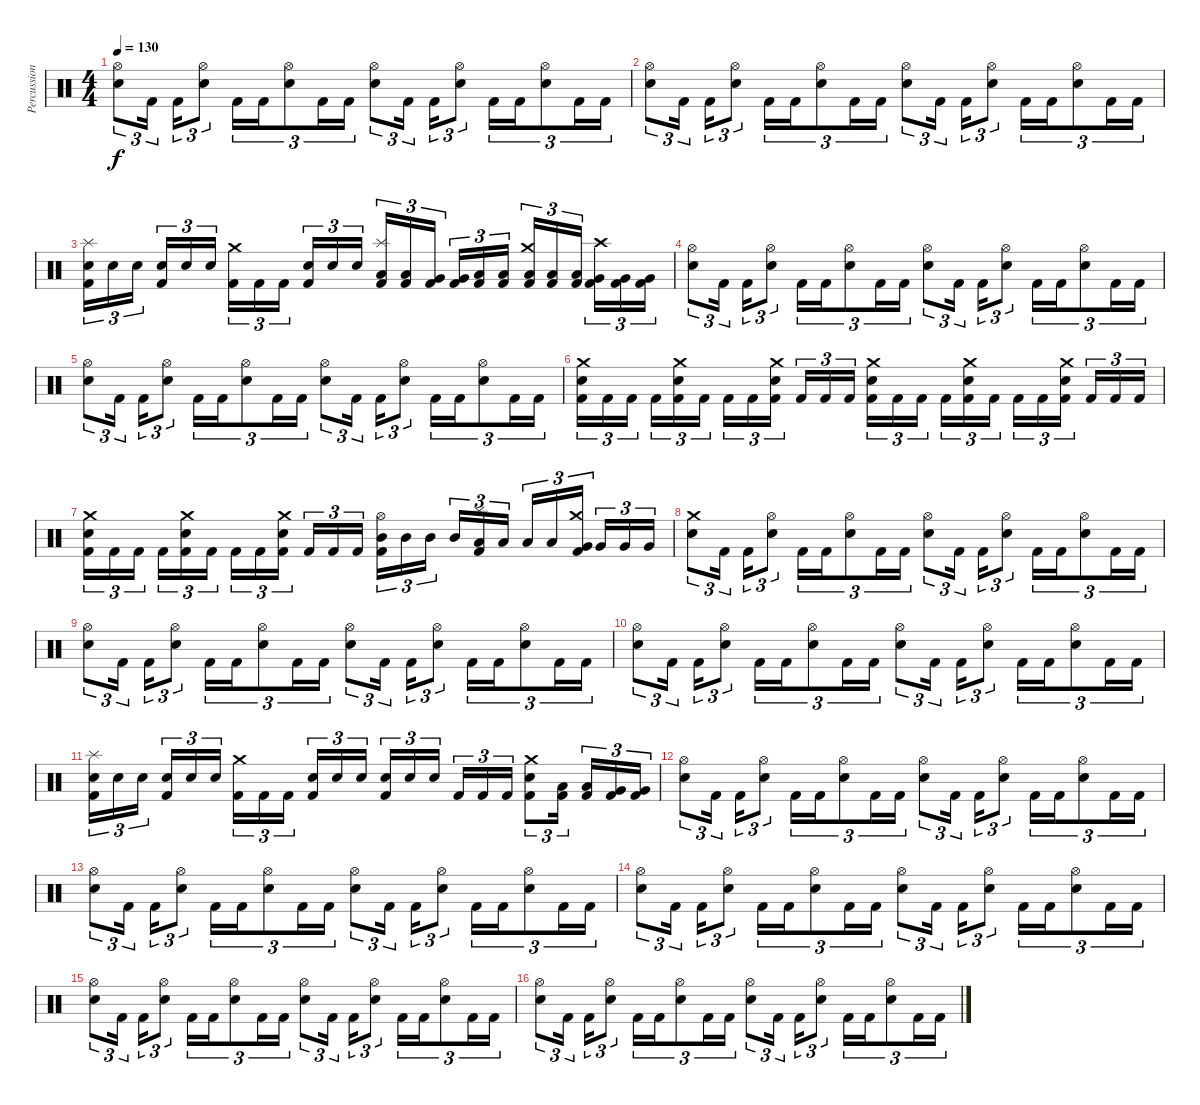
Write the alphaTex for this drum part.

\track ("Percussion" "Percussion") {instrument percussion}
\staff {score}
\articulation defaults
\ts (4 4)
\tempo 130
\clef neutral
\ks c
("Hi-Hat (open)" "Snare (hit) 2").8{tu (3 2) dy f} "Kick (hit) 2".16{tu (3 2)} "Kick (hit) 2".16{tu (3 2)} ("Hi-Hat (open)" "Snare (hit) 2").8{tu (3 2)} "Kick (hit) 2".16{tu (3 2)} "Kick (hit) 2".16{tu (3 2)} ("Hi-Hat (open)" "Snare (hit) 2").8{tu (3 2)} "Kick (hit) 2".16{tu (3 2)} "Kick (hit) 2".16{tu (3 2)} ("Hi-Hat (open)" "Snare (hit) 2").8{tu (3 2)} "Kick (hit) 2".16{tu (3 2)} "Kick (hit) 2".16{tu (3 2)} ("Hi-Hat (open)" "Snare (hit) 2").8{tu (3 2)} "Kick (hit) 2".16{tu (3 2)} "Kick (hit) 2".16{tu (3 2)} ("Hi-Hat (open)" "Snare (hit) 2").8{tu (3 2)} "Kick (hit) 2".16{tu (3 2)} "Kick (hit) 2".16{tu (3 2)} |
("Hi-Hat (open)" "Snare (hit) 2").8{tu (3 2)} "Kick (hit) 2".16{tu (3 2)} "Kick (hit) 2".16{tu (3 2)} ("Hi-Hat (open)" "Snare (hit) 2").8{tu (3 2)} "Kick (hit) 2".16{tu (3 2)} "Kick (hit) 2".16{tu (3 2)} ("Hi-Hat (open)" "Snare (hit) 2").8{tu (3 2)} "Kick (hit) 2".16{tu (3 2)} "Kick (hit) 2".16{tu (3 2)} ("Hi-Hat (open)" "Snare (hit) 2").8{tu (3 2)} "Kick (hit) 2".16{tu (3 2)} "Kick (hit) 2".16{tu (3 2)} ("Hi-Hat (open)" "Snare (hit) 2").8{tu (3 2)} "Kick (hit) 2".16{tu (3 2)} "Kick (hit) 2".16{tu (3 2)} ("Hi-Hat (open)" "Snare (hit) 2").8{tu (3 2)} "Kick (hit) 2".16{tu (3 2)} "Kick (hit) 2".16{tu (3 2)} |
("Splash (hit)" "Snare (hit) 2" "Kick (hit) 2").16{tu (3 2)} "Snare (hit) 2".16{tu (3 2)} "Snare (hit) 2".16{tu (3 2)} ("Snare (hit) 2" "Kick (hit) 2").16{tu (3 2)} "Snare (hit) 2".16{tu (3 2)} "Snare (hit) 2".16{tu (3 2)} ("Crash medium (hit)" "Kick (hit) 2").16{tu (3 2)} "Kick (hit) 2".16{tu (3 2)} "Kick (hit) 2".16{tu (3 2)} ("Snare (hit) 2" "Kick (hit) 2").16{tu (3 2)} "Snare (hit) 2".16{tu (3 2)} "Snare (hit) 2".16{tu (3 2)} ("Splash (hit)" "Low Tom (hit)" "Kick (hit) 2").16{tu (3 2)} ("Low Tom (hit)" "Kick (hit) 2").16{tu (3 2)} ("Very Low Tom (hit)" "Kick (hit) 2").16{tu (3 2)} ("Very Low Tom (hit)" "Kick (hit) 2").16{tu (3 2)} ("Low Floor Tom (hit)" "Kick (hit) 2").16{tu (3 2)} ("Low Floor Tom (hit)" "Kick (hit) 2").16{tu (3 2)} ("Crash medium (hit)" "Low Tom (hit)" "Kick (hit) 2").16{tu (3 2)} ("Low Tom (hit)" "Kick (hit) 2").16{tu (3 2)} ("Low Tom (hit)" "Kick (hit) 2").16{tu (3 2)} ("Crash high (hit)" "Very Low Tom (hit)" "Kick (hit) 2").16{tu (3 2)} ("Very Low Tom (hit)" "Kick (hit) 2").16{tu (3 2)} ("Very Low Tom (hit)" "Kick (hit) 2").16{tu (3 2)} |
("Hi-Hat (open)" "Snare (hit) 2").8{tu (3 2)} "Kick (hit) 2".16{tu (3 2)} "Kick (hit) 2".16{tu (3 2)} ("Hi-Hat (open)" "Snare (hit) 2").8{tu (3 2)} "Kick (hit) 2".16{tu (3 2)} "Kick (hit) 2".16{tu (3 2)} ("Hi-Hat (open)" "Snare (hit) 2").8{tu (3 2)} "Kick (hit) 2".16{tu (3 2)} "Kick (hit) 2".16{tu (3 2)} ("Hi-Hat (open)" "Snare (hit) 2").8{tu (3 2)} "Kick (hit) 2".16{tu (3 2)} "Kick (hit) 2".16{tu (3 2)} ("Hi-Hat (open)" "Snare (hit) 2").8{tu (3 2)} "Kick (hit) 2".16{tu (3 2)} "Kick (hit) 2".16{tu (3 2)} ("Hi-Hat (open)" "Snare (hit) 2").8{tu (3 2)} "Kick (hit) 2".16{tu (3 2)} "Kick (hit) 2".16{tu (3 2)} |
("Hi-Hat (open)" "Snare (hit) 2").8{tu (3 2)} "Kick (hit) 2".16{tu (3 2)} "Kick (hit) 2".16{tu (3 2)} ("Hi-Hat (open)" "Snare (hit) 2").8{tu (3 2)} "Kick (hit) 2".16{tu (3 2)} "Kick (hit) 2".16{tu (3 2)} ("Hi-Hat (open)" "Snare (hit) 2").8{tu (3 2)} "Kick (hit) 2".16{tu (3 2)} "Kick (hit) 2".16{tu (3 2)} ("Hi-Hat (open)" "Snare (hit) 2").8{tu (3 2)} "Kick (hit) 2".16{tu (3 2)} "Kick (hit) 2".16{tu (3 2)} ("Hi-Hat (open)" "Snare (hit) 2").8{tu (3 2)} "Kick (hit) 2".16{tu (3 2)} "Kick (hit) 2".16{tu (3 2)} ("Hi-Hat (open)" "Snare (hit) 2").8{tu (3 2)} "Kick (hit) 2".16{tu (3 2)} "Kick (hit) 2".16{tu (3 2)} |
("Crash medium (hit)" "Snare (hit) 2" "Kick (hit) 2").16{tu (3 2)} "Kick (hit) 2".16{tu (3 2)} "Kick (hit) 2".16{tu (3 2)} "Kick (hit) 2".16{tu (3 2)} ("Crash medium (hit)" "Snare (hit) 2" "Kick (hit) 2").16{tu (3 2)} "Kick (hit) 2".16{tu (3 2)} "Kick (hit) 2".16{tu (3 2)} "Kick (hit) 2".16{tu (3 2)} ("Crash medium (hit)" "Snare (hit) 2" "Kick (hit) 2").16{tu (3 2)} "Kick (hit) 2".16{tu (3 2)} "Kick (hit) 2".16{tu (3 2)} "Kick (hit) 2".16{tu (3 2)} ("Crash medium (hit)" "Snare (hit) 2" "Kick (hit) 2").16{tu (3 2)} "Kick (hit) 2".16{tu (3 2)} "Kick (hit) 2".16{tu (3 2)} "Kick (hit) 2".16{tu (3 2)} ("Crash medium (hit)" "Snare (hit) 2" "Kick (hit) 2").16{tu (3 2)} "Kick (hit) 2".16{tu (3 2)} "Kick (hit) 2".16{tu (3 2)} "Kick (hit) 2".16{tu (3 2)} ("Crash medium (hit)" "Snare (hit) 2" "Kick (hit) 2").16{tu (3 2)} "Kick (hit) 2".16{tu (3 2)} "Kick (hit) 2".16{tu (3 2)} "Kick (hit) 2".16{tu (3 2)} |
("Crash medium (hit)" "Snare (hit) 2" "Kick (hit) 2").16{tu (3 2)} "Kick (hit) 2".16{tu (3 2)} "Kick (hit) 2".16{tu (3 2)} "Kick (hit) 2".16{tu (3 2)} ("Crash medium (hit)" "Snare (hit) 2" "Kick (hit) 2").16{tu (3 2)} "Kick (hit) 2".16{tu (3 2)} "Kick (hit) 2".16{tu (3 2)} "Kick (hit) 2".16{tu (3 2)} ("Crash medium (hit)" "Snare (hit) 2" "Kick (hit) 2").16{tu (3 2)} "Kick (hit) 2".16{tu (3 2)} "Kick (hit) 2".16{tu (3 2)} "Kick (hit) 2".16{tu (3 2)} ("Hi-Hat (open)" "Mid Tom (hit)" "Kick (hit) 2").16{tu (3 2)} "Mid Tom (hit)".16{tu (3 2)} "Mid Tom (hit)".16{tu (3 2)} "Mid Tom (hit)".16{tu (3 2)} ("Splash (hit)" "Low Tom (hit)" "Kick (hit) 2").16{tu (3 2)} "Low Tom (hit)".16{tu (3 2)} "Low Tom (hit)".16{tu (3 2)} "Low Tom (hit)".16{tu (3 2)} ("Crash medium (hit)" "Very Low Tom (hit)" "Kick (hit) 2").16{tu (3 2)} "Very Low Tom (hit)".16{tu (3 2)} "Very Low Tom (hit)".16{tu (3 2)} "Very Low Tom (hit)".16{tu (3 2)} |
("Crash medium (hit)" "Snare (hit) 2").8{tu (3 2)} "Kick (hit) 2".16{tu (3 2)} "Kick (hit) 2".16{tu (3 2)} ("Hi-Hat (open)" "Snare (hit) 2").8{tu (3 2)} "Kick (hit) 2".16{tu (3 2)} "Kick (hit) 2".16{tu (3 2)} ("Hi-Hat (open)" "Snare (hit) 2").8{tu (3 2)} "Kick (hit) 2".16{tu (3 2)} "Kick (hit) 2".16{tu (3 2)} ("Hi-Hat (open)" "Snare (hit) 2").8{tu (3 2)} "Kick (hit) 2".16{tu (3 2)} "Kick (hit) 2".16{tu (3 2)} ("Hi-Hat (open)" "Snare (hit) 2").8{tu (3 2)} "Kick (hit) 2".16{tu (3 2)} "Kick (hit) 2".16{tu (3 2)} ("Hi-Hat (open)" "Snare (hit) 2").8{tu (3 2)} "Kick (hit) 2".16{tu (3 2)} "Kick (hit) 2".16{tu (3 2)} |
("Hi-Hat (open)" "Snare (hit) 2").8{tu (3 2)} "Kick (hit) 2".16{tu (3 2)} "Kick (hit) 2".16{tu (3 2)} ("Hi-Hat (open)" "Snare (hit) 2").8{tu (3 2)} "Kick (hit) 2".16{tu (3 2)} "Kick (hit) 2".16{tu (3 2)} ("Hi-Hat (open)" "Snare (hit) 2").8{tu (3 2)} "Kick (hit) 2".16{tu (3 2)} "Kick (hit) 2".16{tu (3 2)} ("Hi-Hat (open)" "Snare (hit) 2").8{tu (3 2)} "Kick (hit) 2".16{tu (3 2)} "Kick (hit) 2".16{tu (3 2)} ("Hi-Hat (open)" "Snare (hit) 2").8{tu (3 2)} "Kick (hit) 2".16{tu (3 2)} "Kick (hit) 2".16{tu (3 2)} ("Hi-Hat (open)" "Snare (hit) 2").8{tu (3 2)} "Kick (hit) 2".16{tu (3 2)} "Kick (hit) 2".16{tu (3 2)} |
("Hi-Hat (open)" "Snare (hit) 2").8{tu (3 2)} "Kick (hit) 2".16{tu (3 2)} "Kick (hit) 2".16{tu (3 2)} ("Hi-Hat (open)" "Snare (hit) 2").8{tu (3 2)} "Kick (hit) 2".16{tu (3 2)} "Kick (hit) 2".16{tu (3 2)} ("Hi-Hat (open)" "Snare (hit) 2").8{tu (3 2)} "Kick (hit) 2".16{tu (3 2)} "Kick (hit) 2".16{tu (3 2)} ("Hi-Hat (open)" "Snare (hit) 2").8{tu (3 2)} "Kick (hit) 2".16{tu (3 2)} "Kick (hit) 2".16{tu (3 2)} ("Hi-Hat (open)" "Snare (hit) 2").8{tu (3 2)} "Kick (hit) 2".16{tu (3 2)} "Kick (hit) 2".16{tu (3 2)} ("Hi-Hat (open)" "Snare (hit) 2").8{tu (3 2)} "Kick (hit) 2".16{tu (3 2)} "Kick (hit) 2".16{tu (3 2)} |
("Splash (hit)" "Snare (hit) 2" "Kick (hit) 2").16{tu (3 2)} "Snare (hit) 2".16{tu (3 2)} "Snare (hit) 2".16{tu (3 2)} ("Snare (hit) 2" "Kick (hit) 2").16{tu (3 2)} "Snare (hit) 2".16{tu (3 2)} "Snare (hit) 2".16{tu (3 2)} ("Crash medium (hit)" "Kick (hit) 2").16{tu (3 2)} "Kick (hit) 2".16{tu (3 2)} "Kick (hit) 2".16{tu (3 2)} ("Snare (hit) 2" "Kick (hit) 2").16{tu (3 2)} "Snare (hit) 2".16{tu (3 2)} "Snare (hit) 2".16{tu (3 2)} ("Snare (hit) 2" "Kick (hit) 2").16{tu (3 2)} "Snare (hit) 2".16{tu (3 2)} "Snare (hit) 2".16{tu (3 2)} "Kick (hit) 2".16{tu (3 2)} "Kick (hit) 2".16{tu (3 2)} "Kick (hit) 2".16{tu (3 2)} ("Crash medium (hit)" "Snare (hit) 2" "Kick (hit) 2").8{tu (3 2)} ("Low Tom (hit)" "Kick (hit) 2").16{tu (3 2)} ("Low Tom (hit)" "Kick (hit) 2").16{tu (3 2)} ("Very Low Tom (hit)" "Kick (hit) 2").16{tu (3 2)} ("Very Low Tom (hit)" "Kick (hit) 2").16{tu (3 2)} |
("Hi-Hat (open)" "Snare (hit) 2").8{tu (3 2)} "Kick (hit) 2".16{tu (3 2)} "Kick (hit) 2".16{tu (3 2)} ("Hi-Hat (open)" "Snare (hit) 2").8{tu (3 2)} "Kick (hit) 2".16{tu (3 2)} "Kick (hit) 2".16{tu (3 2)} ("Hi-Hat (open)" "Snare (hit) 2").8{tu (3 2)} "Kick (hit) 2".16{tu (3 2)} "Kick (hit) 2".16{tu (3 2)} ("Hi-Hat (open)" "Snare (hit) 2").8{tu (3 2)} "Kick (hit) 2".16{tu (3 2)} "Kick (hit) 2".16{tu (3 2)} ("Hi-Hat (open)" "Snare (hit) 2").8{tu (3 2)} "Kick (hit) 2".16{tu (3 2)} "Kick (hit) 2".16{tu (3 2)} ("Hi-Hat (open)" "Snare (hit) 2").8{tu (3 2)} "Kick (hit) 2".16{tu (3 2)} "Kick (hit) 2".16{tu (3 2)} |
("Hi-Hat (open)" "Snare (hit) 2").8{tu (3 2)} "Kick (hit) 2".16{tu (3 2)} "Kick (hit) 2".16{tu (3 2)} ("Hi-Hat (open)" "Snare (hit) 2").8{tu (3 2)} "Kick (hit) 2".16{tu (3 2)} "Kick (hit) 2".16{tu (3 2)} ("Hi-Hat (open)" "Snare (hit) 2").8{tu (3 2)} "Kick (hit) 2".16{tu (3 2)} "Kick (hit) 2".16{tu (3 2)} ("Hi-Hat (open)" "Snare (hit) 2").8{tu (3 2)} "Kick (hit) 2".16{tu (3 2)} "Kick (hit) 2".16{tu (3 2)} ("Hi-Hat (open)" "Snare (hit) 2").8{tu (3 2)} "Kick (hit) 2".16{tu (3 2)} "Kick (hit) 2".16{tu (3 2)} ("Hi-Hat (open)" "Snare (hit) 2").8{tu (3 2)} "Kick (hit) 2".16{tu (3 2)} "Kick (hit) 2".16{tu (3 2)} |
("Hi-Hat (open)" "Snare (hit) 2").8{tu (3 2)} "Kick (hit) 2".16{tu (3 2)} "Kick (hit) 2".16{tu (3 2)} ("Hi-Hat (open)" "Snare (hit) 2").8{tu (3 2)} "Kick (hit) 2".16{tu (3 2)} "Kick (hit) 2".16{tu (3 2)} ("Hi-Hat (open)" "Snare (hit) 2").8{tu (3 2)} "Kick (hit) 2".16{tu (3 2)} "Kick (hit) 2".16{tu (3 2)} ("Hi-Hat (open)" "Snare (hit) 2").8{tu (3 2)} "Kick (hit) 2".16{tu (3 2)} "Kick (hit) 2".16{tu (3 2)} ("Hi-Hat (open)" "Snare (hit) 2").8{tu (3 2)} "Kick (hit) 2".16{tu (3 2)} "Kick (hit) 2".16{tu (3 2)} ("Hi-Hat (open)" "Snare (hit) 2").8{tu (3 2)} "Kick (hit) 2".16{tu (3 2)} "Kick (hit) 2".16{tu (3 2)} |
("Hi-Hat (open)" "Snare (hit) 2").8{tu (3 2)} "Kick (hit) 2".16{tu (3 2)} "Kick (hit) 2".16{tu (3 2)} ("Hi-Hat (open)" "Snare (hit) 2").8{tu (3 2)} "Kick (hit) 2".16{tu (3 2)} "Kick (hit) 2".16{tu (3 2)} ("Hi-Hat (open)" "Snare (hit) 2").8{tu (3 2)} "Kick (hit) 2".16{tu (3 2)} "Kick (hit) 2".16{tu (3 2)} ("Hi-Hat (open)" "Snare (hit) 2").8{tu (3 2)} "Kick (hit) 2".16{tu (3 2)} "Kick (hit) 2".16{tu (3 2)} ("Hi-Hat (open)" "Snare (hit) 2").8{tu (3 2)} "Kick (hit) 2".16{tu (3 2)} "Kick (hit) 2".16{tu (3 2)} ("Hi-Hat (open)" "Snare (hit) 2").8{tu (3 2)} "Kick (hit) 2".16{tu (3 2)} "Kick (hit) 2".16{tu (3 2)} |
("Hi-Hat (open)" "Snare (hit) 2").8{tu (3 2)} "Kick (hit) 2".16{tu (3 2)} "Kick (hit) 2".16{tu (3 2)} ("Hi-Hat (open)" "Snare (hit) 2").8{tu (3 2)} "Kick (hit) 2".16{tu (3 2)} "Kick (hit) 2".16{tu (3 2)} ("Hi-Hat (open)" "Snare (hit) 2").8{tu (3 2)} "Kick (hit) 2".16{tu (3 2)} "Kick (hit) 2".16{tu (3 2)} ("Hi-Hat (open)" "Snare (hit) 2").8{tu (3 2)} "Kick (hit) 2".16{tu (3 2)} "Kick (hit) 2".16{tu (3 2)} ("Hi-Hat (open)" "Snare (hit) 2").8{tu (3 2)} "Kick (hit) 2".16{tu (3 2)} "Kick (hit) 2".16{tu (3 2)} ("Hi-Hat (open)" "Snare (hit) 2").8{tu (3 2)} "Kick (hit) 2".16{tu (3 2)} "Kick (hit) 2".16{tu (3 2)}
